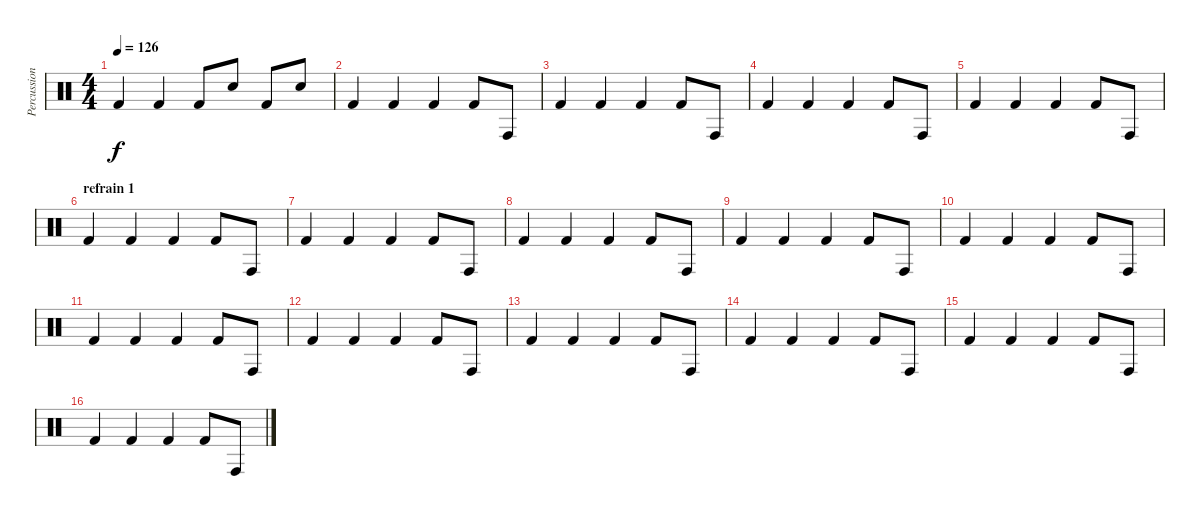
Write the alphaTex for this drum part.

\track ("Percussions" "Percussion") {instrument percussion}
\staff {score}
\articulation defaults
\ts (4 4)
\tempo 126
\clef neutral
\ks c "Kick (hit) 2".4{dy f} "Kick (hit) 2".4 "Kick (hit) 2".8 "Electric Snare (hit)".8 "Kick (hit) 2".8 "Electric Snare (hit)".8
|
"Kick (hit) 2".4 "Kick (hit) 2".4 "Kick (hit) 2".4 "Kick (hit) 2".8 "Conga high (hit)".8 |
"Kick (hit) 2".4 "Kick (hit) 2".4 "Kick (hit) 2".4 "Kick (hit) 2".8 "Conga high (hit)".8 |
"Kick (hit) 2".4 "Kick (hit) 2".4 "Kick (hit) 2".4 "Kick (hit) 2".8 "Conga high (hit)".8 |
"Kick (hit) 2".4 "Kick (hit) 2".4 "Kick (hit) 2".4 "Kick (hit) 2".8 "Conga high (hit)".8 |
\section ("" "refrain 1")
"Kick (hit) 2".4 "Kick (hit) 2".4 "Kick (hit) 2".4 "Kick (hit) 2".8 "Conga high (hit)".8 |
"Kick (hit) 2".4 "Kick (hit) 2".4 "Kick (hit) 2".4 "Kick (hit) 2".8 "Conga high (hit)".8 |
"Kick (hit) 2".4 "Kick (hit) 2".4 "Kick (hit) 2".4 "Kick (hit) 2".8 "Conga high (hit)".8 |
"Kick (hit) 2".4 "Kick (hit) 2".4 "Kick (hit) 2".4 "Kick (hit) 2".8 "Conga high (hit)".8 |
"Kick (hit) 2".4 "Kick (hit) 2".4 "Kick (hit) 2".4 "Kick (hit) 2".8 "Conga high (hit)".8 |
"Kick (hit) 2".4 "Kick (hit) 2".4 "Kick (hit) 2".4 "Kick (hit) 2".8 "Conga high (hit)".8 |
"Kick (hit) 2".4 "Kick (hit) 2".4 "Kick (hit) 2".4 "Kick (hit) 2".8 "Conga high (hit)".8 |
"Kick (hit) 2".4 "Kick (hit) 2".4 "Kick (hit) 2".4 "Kick (hit) 2".8 "Conga high (hit)".8 |
"Kick (hit) 2".4 "Kick (hit) 2".4 "Kick (hit) 2".4 "Kick (hit) 2".8 "Conga high (hit)".8 |
"Kick (hit) 2".4 "Kick (hit) 2".4 "Kick (hit) 2".4 "Kick (hit) 2".8 "Conga high (hit)".8 |
"Kick (hit) 2".4 "Kick (hit) 2".4 "Kick (hit) 2".4 "Kick (hit) 2".8 "Conga high (hit)".8
